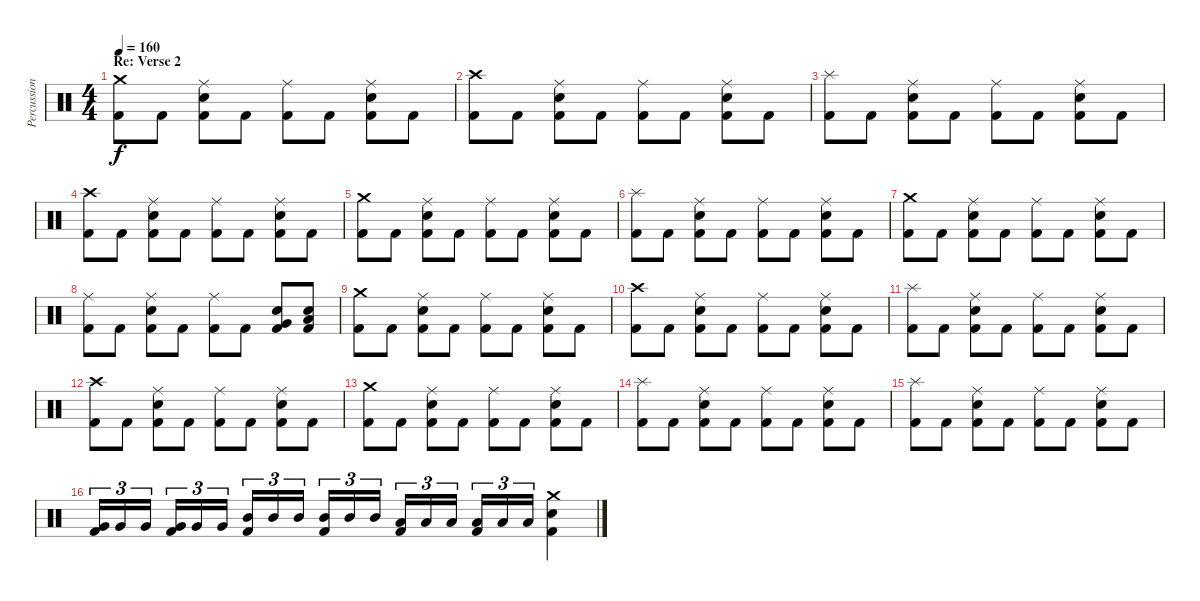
\track ("Percussions" "Percussion") {instrument percussion}
\staff {score}
\articulation defaults
\ts (4 4)
\section ("" "Re: Verse 2")
\tempo 160
\clef neutral
\ks c
("Crash medium (hit)" "Kick (hit) 2").8{dy f} "Kick (hit) 2".8 ("Electric Snare (hit)" "Ride (middle)" "Kick (hit) 2").8 "Kick (hit) 2".8 ("Ride (middle)" "Kick (hit) 2").8 "Kick (hit) 2".8 ("Electric Snare (hit)" "Ride (middle)" "Kick (hit) 2").8 "Kick (hit) 2".8 |
("Crash high (hit)" "Kick (hit) 2").8 "Kick (hit) 2".8 ("Electric Snare (hit)" "Ride (middle)" "Kick (hit) 2").8 "Kick (hit) 2".8 ("Ride (middle)" "Kick (hit) 2").8 "Kick (hit) 2".8 ("Electric Snare (hit)" "Ride (middle)" "Kick (hit) 2").8 "Kick (hit) 2".8 |
("Splash (hit)" "Kick (hit) 2").8 "Kick (hit) 2".8 ("Electric Snare (hit)" "Ride (middle)" "Kick (hit) 2").8 "Kick (hit) 2".8 ("Ride (middle)" "Kick (hit) 2").8 "Kick (hit) 2".8 ("Electric Snare (hit)" "Ride (middle)" "Kick (hit) 2").8 "Kick (hit) 2".8 |
("Crash high (hit)" "Kick (hit) 2").8 "Kick (hit) 2".8 ("Electric Snare (hit)" "Ride (middle)" "Kick (hit) 2").8 "Kick (hit) 2".8 ("Ride (middle)" "Kick (hit) 2").8 "Kick (hit) 2".8 ("Electric Snare (hit)" "Ride (middle)" "Kick (hit) 2").8 "Kick (hit) 2".8 |
("Crash medium (hit)" "Kick (hit) 2").8 "Kick (hit) 2".8 ("Electric Snare (hit)" "Ride (middle)" "Kick (hit) 2").8 "Kick (hit) 2".8 ("Ride (middle)" "Kick (hit) 2").8 "Kick (hit) 2".8 ("Electric Snare (hit)" "Ride (middle)" "Kick (hit) 2").8 "Kick (hit) 2".8 |
("Splash (hit)" "Kick (hit) 2").8 "Kick (hit) 2".8 ("Electric Snare (hit)" "Ride (middle)" "Kick (hit) 2").8 "Kick (hit) 2".8 ("Ride (middle)" "Kick (hit) 2").8 "Kick (hit) 2".8 ("Electric Snare (hit)" "Ride (middle)" "Kick (hit) 2").8 "Kick (hit) 2".8 |
("Crash medium (hit)" "Kick (hit) 2").8 "Kick (hit) 2".8 ("Electric Snare (hit)" "Ride (middle)" "Kick (hit) 2").8 "Kick (hit) 2".8 ("Ride (middle)" "Kick (hit) 2").8 "Kick (hit) 2".8 ("Electric Snare (hit)" "Ride (middle)" "Kick (hit) 2").8 "Kick (hit) 2".8 |
("Ride (middle)" "Kick (hit) 2").8 "Kick (hit) 2".8 ("Electric Snare (hit)" "Ride (middle)" "Kick (hit) 2").8 "Kick (hit) 2".8 ("Ride (middle)" "Kick (hit) 2").8 "Kick (hit) 2".8 ("Electric Snare (hit)" "Very Low Tom (hit)" "Kick (hit) 2").8 ("Electric Snare (hit)" "Low Floor Tom (hit)" "Kick (hit) 2").8 |
("Crash medium (hit)" "Kick (hit) 2").8 "Kick (hit) 2".8 ("Electric Snare (hit)" "Ride (middle)" "Kick (hit) 2").8 "Kick (hit) 2".8 ("Ride (middle)" "Kick (hit) 2").8 "Kick (hit) 2".8 ("Electric Snare (hit)" "Ride (middle)" "Kick (hit) 2").8 "Kick (hit) 2".8 |
("Crash high (hit)" "Kick (hit) 2").8 "Kick (hit) 2".8 ("Electric Snare (hit)" "Ride (middle)" "Kick (hit) 2").8 "Kick (hit) 2".8 ("Ride (middle)" "Kick (hit) 2").8 "Kick (hit) 2".8 ("Electric Snare (hit)" "Ride (middle)" "Kick (hit) 2").8 "Kick (hit) 2".8 |
("Splash (hit)" "Kick (hit) 2").8 "Kick (hit) 2".8 ("Electric Snare (hit)" "Ride (middle)" "Kick (hit) 2").8 "Kick (hit) 2".8 ("Ride (middle)" "Kick (hit) 2").8 "Kick (hit) 2".8 ("Electric Snare (hit)" "Ride (middle)" "Kick (hit) 2").8 "Kick (hit) 2".8 |
("Crash high (hit)" "Kick (hit) 2").8 "Kick (hit) 2".8 ("Electric Snare (hit)" "Ride (middle)" "Kick (hit) 2").8 "Kick (hit) 2".8 ("Ride (middle)" "Kick (hit) 2").8 "Kick (hit) 2".8 ("Electric Snare (hit)" "Ride (middle)" "Kick (hit) 2").8 "Kick (hit) 2".8 |
("Crash medium (hit)" "Kick (hit) 2").8 "Kick (hit) 2".8 ("Electric Snare (hit)" "Ride (middle)" "Kick (hit) 2").8 "Kick (hit) 2".8 ("Ride (middle)" "Kick (hit) 2").8 "Kick (hit) 2".8 ("Electric Snare (hit)" "Ride (middle)" "Kick (hit) 2").8 "Kick (hit) 2".8 |
("Splash (hit)" "Kick (hit) 2").8 "Kick (hit) 2".8 ("Electric Snare (hit)" "Ride (middle)" "Kick (hit) 2").8 "Kick (hit) 2".8 ("Ride (middle)" "Kick (hit) 2").8 "Kick (hit) 2".8 ("Electric Snare (hit)" "Ride (middle)" "Kick (hit) 2").8 "Kick (hit) 2".8 |
("Splash (hit)" "Kick (hit) 2").8 "Kick (hit) 2".8 ("Electric Snare (hit)" "Ride (middle)" "Kick (hit) 2").8 "Kick (hit) 2".8 ("Ride (middle)" "Kick (hit) 2").8 "Kick (hit) 2".8 ("Electric Snare (hit)" "Ride (middle)" "Kick (hit) 2").8 "Kick (hit) 2".8 |
("Very Low Tom (hit)" "Kick (hit) 2").16{tu (3 2)} "Very Low Tom (hit)".16{tu (3 2)} "Very Low Tom (hit)".16{tu (3 2)} ("Very Low Tom (hit)" "Kick (hit) 2").16{tu (3 2)} "Very Low Tom (hit)".16{tu (3 2)} "Very Low Tom (hit)".16{tu (3 2)} ("Mid Tom (hit)" "Kick (hit) 2").16{tu (3 2)} "Mid Tom (hit)".16{tu (3 2)} "Mid Tom (hit)".16{tu (3 2)} ("Mid Tom (hit)" "Kick (hit) 2").16{tu (3 2)} "Mid Tom (hit)".16{tu (3 2)} "Mid Tom (hit)".16{tu (3 2)} ("Low Tom (hit)" "Kick (hit) 2").16{tu (3 2)} "Low Tom (hit)".16{tu (3 2)} "Low Tom (hit)".16{tu (3 2)} ("Low Tom (hit)" "Kick (hit) 2").16{tu (3 2)} "Low Tom (hit)".16{tu (3 2)} "Low Tom (hit)".16{tu (3 2)} ("Crash medium (hit)" "Electric Snare (hit)" "Kick (hit) 2").4
